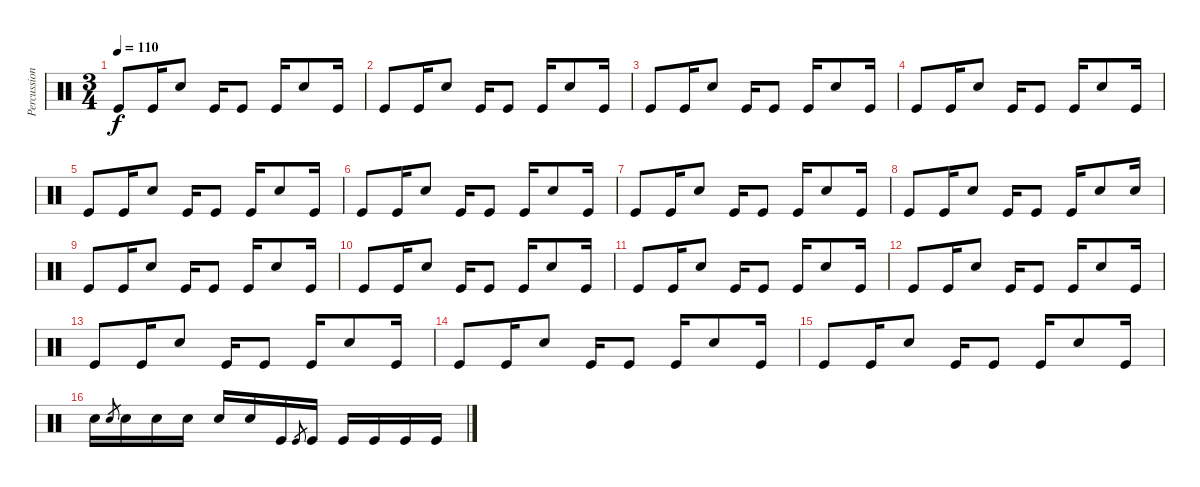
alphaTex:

\track ("Percussion" "Percussion") {instrument percussion}
\staff {score}
\articulation defaults
\ts (3 4)
\tempo 110
\clef neutral
\ks c "Kick (hit)".8{dy f} "Kick (hit)".16 "Snare (hit) 2".8 "Kick (hit)".16 "Kick (hit)".8 "Kick (hit)".16 "Snare (hit) 2".8 "Kick (hit)".16
|
"Kick (hit)".8 "Kick (hit)".16 "Snare (hit) 2".8 "Kick (hit)".16 "Kick (hit)".8 "Kick (hit)".16 "Snare (hit) 2".8 "Kick (hit)".16 |
"Kick (hit)".8 "Kick (hit)".16 "Snare (hit) 2".8 "Kick (hit)".16 "Kick (hit)".8 "Kick (hit)".16 "Snare (hit) 2".8 "Kick (hit)".16 |
"Kick (hit)".8 "Kick (hit)".16 "Snare (hit) 2".8 "Kick (hit)".16 "Kick (hit)".8 "Kick (hit)".16 "Snare (hit) 2".8 "Kick (hit)".16 |
"Kick (hit)".8 "Kick (hit)".16 "Snare (hit) 2".8 "Kick (hit)".16 "Kick (hit)".8 "Kick (hit)".16 "Snare (hit) 2".8 "Kick (hit)".16 |
"Kick (hit)".8 "Kick (hit)".16 "Snare (hit) 2".8 "Kick (hit)".16 "Kick (hit)".8 "Kick (hit)".16 "Snare (hit) 2".8 "Kick (hit)".16 |
"Kick (hit)".8 "Kick (hit)".16 "Snare (hit) 2".8 "Kick (hit)".16 "Kick (hit)".8 "Kick (hit)".16 "Snare (hit) 2".8 "Kick (hit)".16 |
"Kick (hit)".8 "Kick (hit)".16 "Snare (hit) 2".8 "Kick (hit)".16 "Kick (hit)".8 "Kick (hit)".16 "Snare (hit) 2".8 "Snare (hit) 2".16 |
"Kick (hit)".8 "Kick (hit)".16 "Snare (hit) 2".8 "Kick (hit)".16 "Kick (hit)".8 "Kick (hit)".16 "Snare (hit) 2".8 "Kick (hit)".16 |
"Kick (hit)".8 "Kick (hit)".16 "Snare (hit) 2".8 "Kick (hit)".16 "Kick (hit)".8 "Kick (hit)".16 "Snare (hit) 2".8 "Kick (hit)".16 |
"Kick (hit)".8 "Kick (hit)".16 "Snare (hit) 2".8 "Kick (hit)".16 "Kick (hit)".8 "Kick (hit)".16 "Snare (hit) 2".8 "Kick (hit)".16 |
"Kick (hit)".8 "Kick (hit)".16 "Snare (hit) 2".8 "Kick (hit)".16 "Kick (hit)".8 "Kick (hit)".16 "Snare (hit) 2".8 "Kick (hit)".16 |
"Kick (hit)".8 "Kick (hit)".16 "Snare (hit) 2".8 "Kick (hit)".16 "Kick (hit)".8 "Kick (hit)".16 "Snare (hit) 2".8 "Kick (hit)".16 |
"Kick (hit)".8 "Kick (hit)".16 "Snare (hit) 2".8 "Kick (hit)".16 "Kick (hit)".8 "Kick (hit)".16 "Snare (hit) 2".8 "Kick (hit)".16 |
"Kick (hit)".8 "Kick (hit)".16 "Snare (hit) 2".8 "Kick (hit)".16 "Kick (hit)".8 "Kick (hit)".16 "Snare (hit) 2".8 "Kick (hit)".16 |
"Snare (hit) 2".16 "Snare (hit) 2".8{gr} "Snare (hit) 2".16 "Snare (hit) 2".16 "Snare (hit) 2".16 "Snare (hit) 2".16 "Snare (hit) 2".16 "Kick (hit)".16 "Kick (hit)".8{gr} "Kick (hit)".16 "Kick (hit)".16 "Kick (hit)".16 "Kick (hit)".16 "Kick (hit)".16
